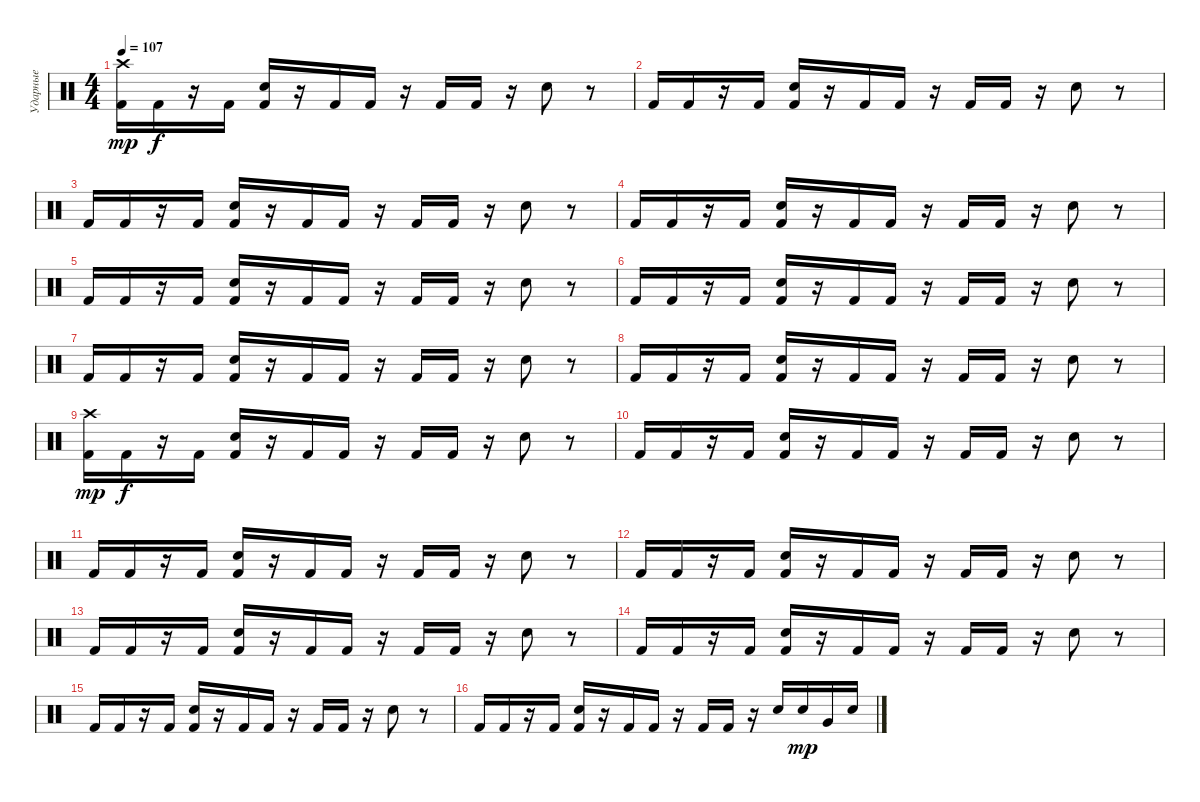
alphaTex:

\track ("Ударные" "Ударные") {instrument percussion}
\staff {score}
\articulation defaults
\ts (4 4)
\tempo 107
\clef neutral
\ks c
("Crash high (hit)" "Kick (hit) 2").16{dy mp} "Kick (hit) 2".16{dy f} r.16 "Kick (hit) 2".16 ("Snare (hit) 2" "Kick (hit) 2").16 r.16 "Kick (hit) 2".16 "Kick (hit) 2".16 r.16 "Kick (hit) 2".16 "Kick (hit) 2".16 r.16 "Snare (hit) 2".8 r.8 |
"Kick (hit) 2".16 "Kick (hit) 2".16 r.16 "Kick (hit) 2".16 ("Snare (hit) 2" "Kick (hit) 2").16 r.16 "Kick (hit) 2".16 "Kick (hit) 2".16 r.16 "Kick (hit) 2".16 "Kick (hit) 2".16 r.16 "Snare (hit) 2".8 r.8 |
"Kick (hit) 2".16 "Kick (hit) 2".16 r.16 "Kick (hit) 2".16 ("Snare (hit) 2" "Kick (hit) 2").16 r.16 "Kick (hit) 2".16 "Kick (hit) 2".16 r.16 "Kick (hit) 2".16 "Kick (hit) 2".16 r.16 "Snare (hit) 2".8 r.8 |
"Kick (hit) 2".16 "Kick (hit) 2".16 r.16 "Kick (hit) 2".16 ("Snare (hit) 2" "Kick (hit) 2").16 r.16 "Kick (hit) 2".16 "Kick (hit) 2".16 r.16 "Kick (hit) 2".16 "Kick (hit) 2".16 r.16 "Snare (hit) 2".8 r.8 |
"Kick (hit) 2".16 "Kick (hit) 2".16 r.16 "Kick (hit) 2".16 ("Snare (hit) 2" "Kick (hit) 2").16 r.16 "Kick (hit) 2".16 "Kick (hit) 2".16 r.16 "Kick (hit) 2".16 "Kick (hit) 2".16 r.16 "Snare (hit) 2".8 r.8 |
"Kick (hit) 2".16 "Kick (hit) 2".16 r.16 "Kick (hit) 2".16 ("Snare (hit) 2" "Kick (hit) 2").16 r.16 "Kick (hit) 2".16 "Kick (hit) 2".16 r.16 "Kick (hit) 2".16 "Kick (hit) 2".16 r.16 "Snare (hit) 2".8 r.8 |
"Kick (hit) 2".16 "Kick (hit) 2".16 r.16 "Kick (hit) 2".16 ("Snare (hit) 2" "Kick (hit) 2").16 r.16 "Kick (hit) 2".16 "Kick (hit) 2".16 r.16 "Kick (hit) 2".16 "Kick (hit) 2".16 r.16 "Snare (hit) 2".8 r.8 |
"Kick (hit) 2".16 "Kick (hit) 2".16 r.16 "Kick (hit) 2".16 ("Snare (hit) 2" "Kick (hit) 2").16 r.16 "Kick (hit) 2".16 "Kick (hit) 2".16 r.16 "Kick (hit) 2".16 "Kick (hit) 2".16 r.16 "Snare (hit) 2".8 r.8 |
("Crash high (hit)" "Kick (hit) 2").16{dy mp} "Kick (hit) 2".16{dy f} r.16 "Kick (hit) 2".16 ("Snare (hit) 2" "Kick (hit) 2").16 r.16 "Kick (hit) 2".16 "Kick (hit) 2".16 r.16 "Kick (hit) 2".16 "Kick (hit) 2".16 r.16 "Snare (hit) 2".8 r.8 |
"Kick (hit) 2".16 "Kick (hit) 2".16 r.16 "Kick (hit) 2".16 ("Snare (hit) 2" "Kick (hit) 2").16 r.16 "Kick (hit) 2".16 "Kick (hit) 2".16 r.16 "Kick (hit) 2".16 "Kick (hit) 2".16 r.16 "Snare (hit) 2".8 r.8 |
"Kick (hit) 2".16 "Kick (hit) 2".16 r.16 "Kick (hit) 2".16 ("Snare (hit) 2" "Kick (hit) 2").16 r.16 "Kick (hit) 2".16 "Kick (hit) 2".16 r.16 "Kick (hit) 2".16 "Kick (hit) 2".16 r.16 "Snare (hit) 2".8 r.8 |
"Kick (hit) 2".16 "Kick (hit) 2".16 r.16 "Kick (hit) 2".16 ("Snare (hit) 2" "Kick (hit) 2").16 r.16 "Kick (hit) 2".16 "Kick (hit) 2".16 r.16 "Kick (hit) 2".16 "Kick (hit) 2".16 r.16 "Snare (hit) 2".8 r.8 |
"Kick (hit) 2".16 "Kick (hit) 2".16 r.16 "Kick (hit) 2".16 ("Snare (hit) 2" "Kick (hit) 2").16 r.16 "Kick (hit) 2".16 "Kick (hit) 2".16 r.16 "Kick (hit) 2".16 "Kick (hit) 2".16 r.16 "Snare (hit) 2".8 r.8 |
"Kick (hit) 2".16 "Kick (hit) 2".16 r.16 "Kick (hit) 2".16 ("Snare (hit) 2" "Kick (hit) 2").16 r.16 "Kick (hit) 2".16 "Kick (hit) 2".16 r.16 "Kick (hit) 2".16 "Kick (hit) 2".16 r.16 "Snare (hit) 2".8 r.8 |
"Kick (hit) 2".16 "Kick (hit) 2".16 r.16 "Kick (hit) 2".16 ("Snare (hit) 2" "Kick (hit) 2").16 r.16 "Kick (hit) 2".16 "Kick (hit) 2".16 r.16 "Kick (hit) 2".16 "Kick (hit) 2".16 r.16 "Snare (hit) 2".8 r.8 |
"Kick (hit) 2".16 "Kick (hit) 2".16 r.16 "Kick (hit) 2".16 ("Snare (hit) 2" "Kick (hit) 2").16 r.16 "Kick (hit) 2".16 "Kick (hit) 2".16 r.16 "Kick (hit) 2".16 "Kick (hit) 2".16 r.16 "Snare (hit) 2".16 "Electric Snare (hit)".16{dy mp} "Very Low Tom (hit)".16 "Electric Snare (hit)".16
